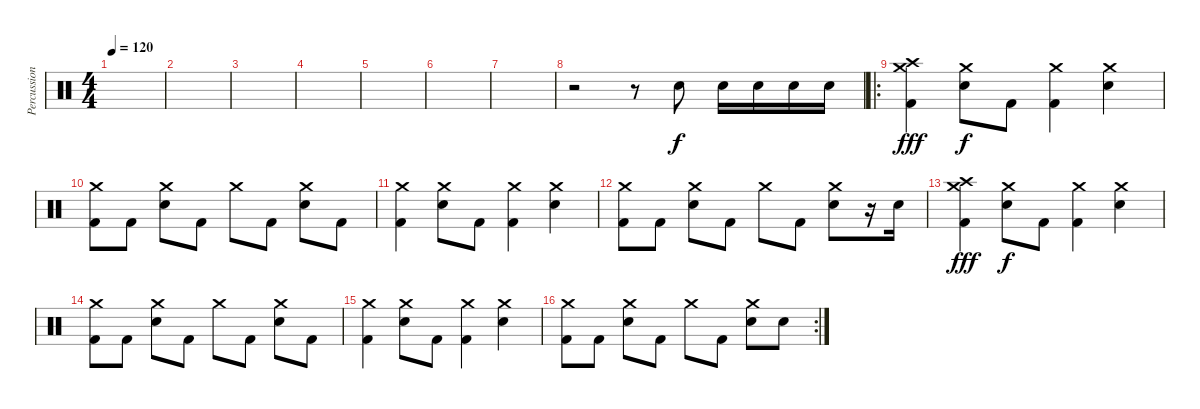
\track ("Percussions" "Percussion") {instrument percussion}
\staff {score}
\articulation defaults
\ts (4 4)
\tempo 120
\clef neutral
\ks c
|
|
|
|
|
|
|
r.2 r.8 "Snare (hit) 2".8 "Snare (hit) 2".16 "Snare (hit) 2".16 "Snare (hit) 2".16 "Snare (hit) 2".16 |
\ro
("Crash medium (hit)" "Crash high (hit)" "Kick (hit) 2").4{dy fff} ("Crash medium (hit)" "Snare (hit) 2").8{dy f} "Kick (hit) 2".8 ("Crash medium (hit)" "Kick (hit) 2").4 ("Crash medium (hit)" "Snare (hit) 2").4 |
("Crash medium (hit)" "Kick (hit) 2").8 "Kick (hit) 2".8 ("Crash medium (hit)" "Snare (hit) 2").8 "Kick (hit) 2".8 "Crash medium (hit)".8 "Kick (hit) 2".8 ("Crash medium (hit)" "Snare (hit) 2").8 "Kick (hit) 2".8 |
("Crash medium (hit)" "Kick (hit) 2").4 ("Crash medium (hit)" "Snare (hit) 2").8 "Kick (hit) 2".8 ("Crash medium (hit)" "Kick (hit) 2").4 ("Crash medium (hit)" "Snare (hit) 2").4 |
("Crash medium (hit)" "Kick (hit) 2").8 "Kick (hit) 2".8 ("Crash medium (hit)" "Snare (hit) 2").8 "Kick (hit) 2".8 "Crash medium (hit)".8 "Kick (hit) 2".8 ("Crash medium (hit)" "Snare (hit) 2").8 r.16 "Snare (hit) 2".16 |
("Crash medium (hit)" "Kick (hit) 2" "Crash high (hit)").4{dy fff} ("Crash medium (hit)" "Snare (hit) 2").8{dy f} "Kick (hit) 2".8 ("Crash medium (hit)" "Kick (hit) 2").4 ("Crash medium (hit)" "Snare (hit) 2").4 |
("Crash medium (hit)" "Kick (hit) 2").8 "Kick (hit) 2".8 ("Crash medium (hit)" "Snare (hit) 2").8 "Kick (hit) 2".8 "Crash medium (hit)".8 "Kick (hit) 2".8 ("Crash medium (hit)" "Snare (hit) 2").8 "Kick (hit) 2".8 |
("Crash medium (hit)" "Kick (hit) 2").4 ("Crash medium (hit)" "Snare (hit) 2").8 "Kick (hit) 2".8 ("Crash medium (hit)" "Kick (hit) 2").4 ("Crash medium (hit)" "Snare (hit) 2").4 |
\rc 2
("Crash medium (hit)" "Kick (hit) 2").8 "Kick (hit) 2".8 ("Crash medium (hit)" "Snare (hit) 2").8 "Kick (hit) 2".8 "Crash medium (hit)".8 "Kick (hit) 2".8 ("Crash medium (hit)" "Snare (hit) 2").8 "Snare (hit) 2".8
